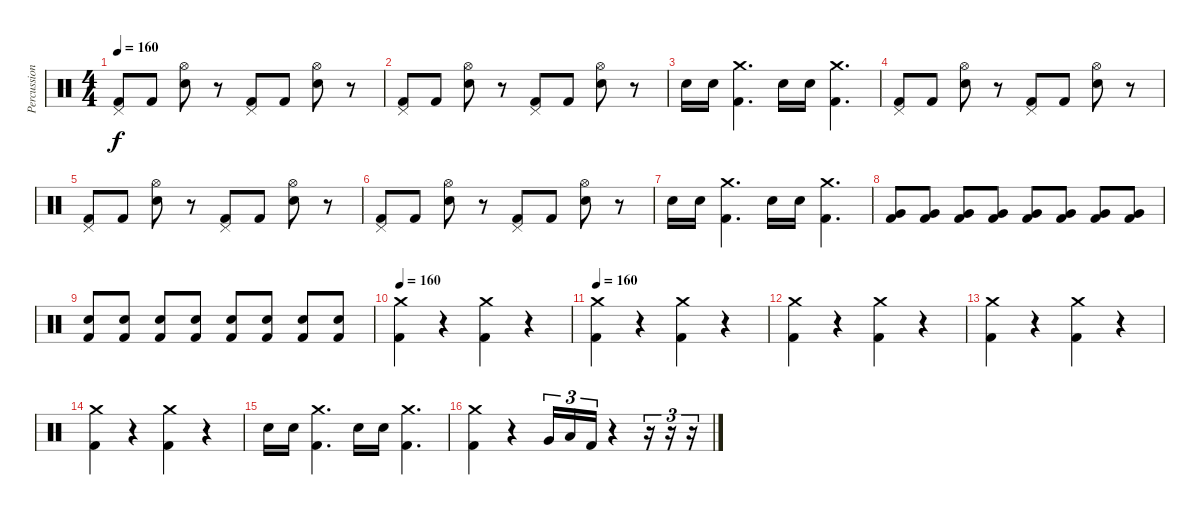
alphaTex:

\track ("Percussion" "Percussion") {instrument percussion}
\staff {score}
\articulation defaults
\ts (4 4)
\tempo 160
\clef neutral
\ks c
("Pedal Hi-Hat (hit)" "Kick (hit) 2").8{dy f} "Kick (hit) 2".8 ("Hi-Hat (open)" "Snare (hit) 2").8 r.8 ("Pedal Hi-Hat (hit)" "Kick (hit) 2").8 "Kick (hit) 2".8 ("Hi-Hat (open)" "Snare (hit) 2").8 r.8 |
("Pedal Hi-Hat (hit)" "Kick (hit) 2").8 "Kick (hit) 2".8 ("Hi-Hat (open)" "Snare (hit) 2").8 r.8 ("Pedal Hi-Hat (hit)" "Kick (hit) 2").8 "Kick (hit) 2".8 ("Hi-Hat (open)" "Snare (hit) 2").8 r.8 |
"Snare (hit) 2".16 "Snare (hit) 2".16 ("Crash medium (hit)" "Kick (hit) 2").4{d} "Snare (hit) 2".16 "Snare (hit) 2".16 ("Crash medium (hit)" "Kick (hit) 2").4{d} |
("Pedal Hi-Hat (hit)" "Kick (hit) 2").8 "Kick (hit) 2".8 ("Hi-Hat (open)" "Snare (hit) 2").8 r.8 ("Pedal Hi-Hat (hit)" "Kick (hit) 2").8 "Kick (hit) 2".8 ("Hi-Hat (open)" "Snare (hit) 2").8 r.8 |
("Pedal Hi-Hat (hit)" "Kick (hit) 2").8 "Kick (hit) 2".8 ("Hi-Hat (open)" "Snare (hit) 2").8 r.8 ("Pedal Hi-Hat (hit)" "Kick (hit) 2").8 "Kick (hit) 2".8 ("Hi-Hat (open)" "Snare (hit) 2").8 r.8 |
("Pedal Hi-Hat (hit)" "Kick (hit) 2").8 "Kick (hit) 2".8 ("Hi-Hat (open)" "Snare (hit) 2").8 r.8 ("Pedal Hi-Hat (hit)" "Kick (hit) 2").8 "Kick (hit) 2".8 ("Hi-Hat (open)" "Snare (hit) 2").8 r.8 |
"Snare (hit) 2".16 "Snare (hit) 2".16 ("Crash medium (hit)" "Kick (hit) 2").4{d} "Snare (hit) 2".16 "Snare (hit) 2".16 ("Crash medium (hit)" "Kick (hit) 2").4{d} |
("Very Low Tom (hit)" "Kick (hit) 2").8 ("Very Low Tom (hit)" "Kick (hit) 2").8 ("Very Low Tom (hit)" "Kick (hit) 2").8 ("Very Low Tom (hit)" "Kick (hit) 2").8 ("Very Low Tom (hit)" "Kick (hit) 2").8 ("Very Low Tom (hit)" "Kick (hit) 2").8 ("Very Low Tom (hit)" "Kick (hit) 2").8 ("Very Low Tom (hit)" "Kick (hit) 2").8 |
("Kick (hit) 2" "Snare (hit) 2").8 ("Kick (hit) 2" "Snare (hit) 2").8 ("Kick (hit) 2" "Snare (hit) 2").8 ("Kick (hit) 2" "Snare (hit) 2").8 ("Kick (hit) 2" "Snare (hit) 2").8 ("Kick (hit) 2" "Snare (hit) 2").8 ("Kick (hit) 2" "Snare (hit) 2").8 ("Kick (hit) 2" "Snare (hit) 2").8 |
\tempo 160
("Crash medium (hit)" "Kick (hit) 2").4 r.4 ("Crash medium (hit)" "Kick (hit) 2").4 r.4 |
\tempo 160
("Crash medium (hit)" "Kick (hit) 2").4 r.4 ("Crash medium (hit)" "Kick (hit) 2").4 r.4 |
("Crash medium (hit)" "Kick (hit) 2").4 r.4 ("Crash medium (hit)" "Kick (hit) 2").4 r.4 |
("Crash medium (hit)" "Kick (hit) 2").4 r.4 ("Crash medium (hit)" "Kick (hit) 2").4 r.4 |
("Crash medium (hit)" "Kick (hit) 2").4 r.4 ("Crash medium (hit)" "Kick (hit) 2").4 r.4 |
"Snare (hit) 2".16 "Snare (hit) 2".16 ("Crash medium (hit)" "Kick (hit) 2").4{d} "Snare (hit) 2".16 "Snare (hit) 2".16 ("Crash medium (hit)" "Kick (hit) 2").4{d} |
("Crash medium (hit)" "Kick (hit) 2").4 r.4 "Very Low Tom (hit)".16{tu (3 2)} "Low Floor Tom (hit)".16{tu (3 2)} "Kick (hit) 2".16{tu (3 2)} r.4 r.16{tu (3 2)} r.16{tu (3 2)} r.16{tu (3 2)}
